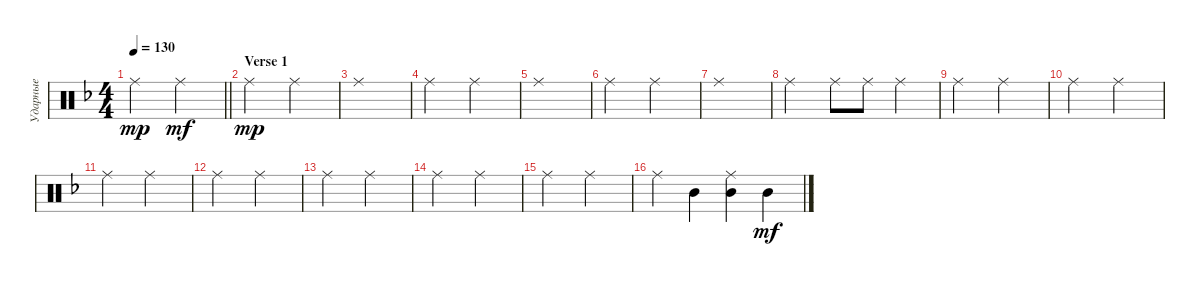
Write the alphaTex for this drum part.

\track ("Ударные" "Ударные") {instrument percussion}
\staff {score}
\articulation defaults
\ts (4 4)
\tempo 130
\clef neutral
\barLineRight lightlight
\ks dminor "Ride (middle)".2{dy mp} "Ride (middle)".2{dy mf}
|
\section ("" "Verse 1")
"Ride (middle)".2{dy mp} "Ride (middle)".2 |
"Ride (middle)".1 |
"Ride (middle)".2 "Ride (middle)".2 |
"Ride (middle)".1 |
"Ride (middle)".2 "Ride (middle)".2 |
"Ride (middle)".1 |
"Ride (middle)".2 "Ride (middle)".8 "Ride (middle)".8 "Ride (middle)".4 |
"Ride (middle)".2 "Ride (middle)".2 |
"Ride (middle)".2 "Ride (middle)".2 |
"Ride (middle)".2 "Ride (middle)".2 |
"Ride (middle)".2 "Ride (middle)".2 |
"Ride (middle)".2 "Ride (middle)".2 |
"Ride (middle)".2 "Ride (middle)".2 |
"Ride (middle)".2 "Ride (middle)".2 |
"Ride (middle)".4 "Mid Tom (hit)".4 ("Ride (middle)" "Mid Tom (hit)").4 "Mid Tom (hit)".4{dy mf}
